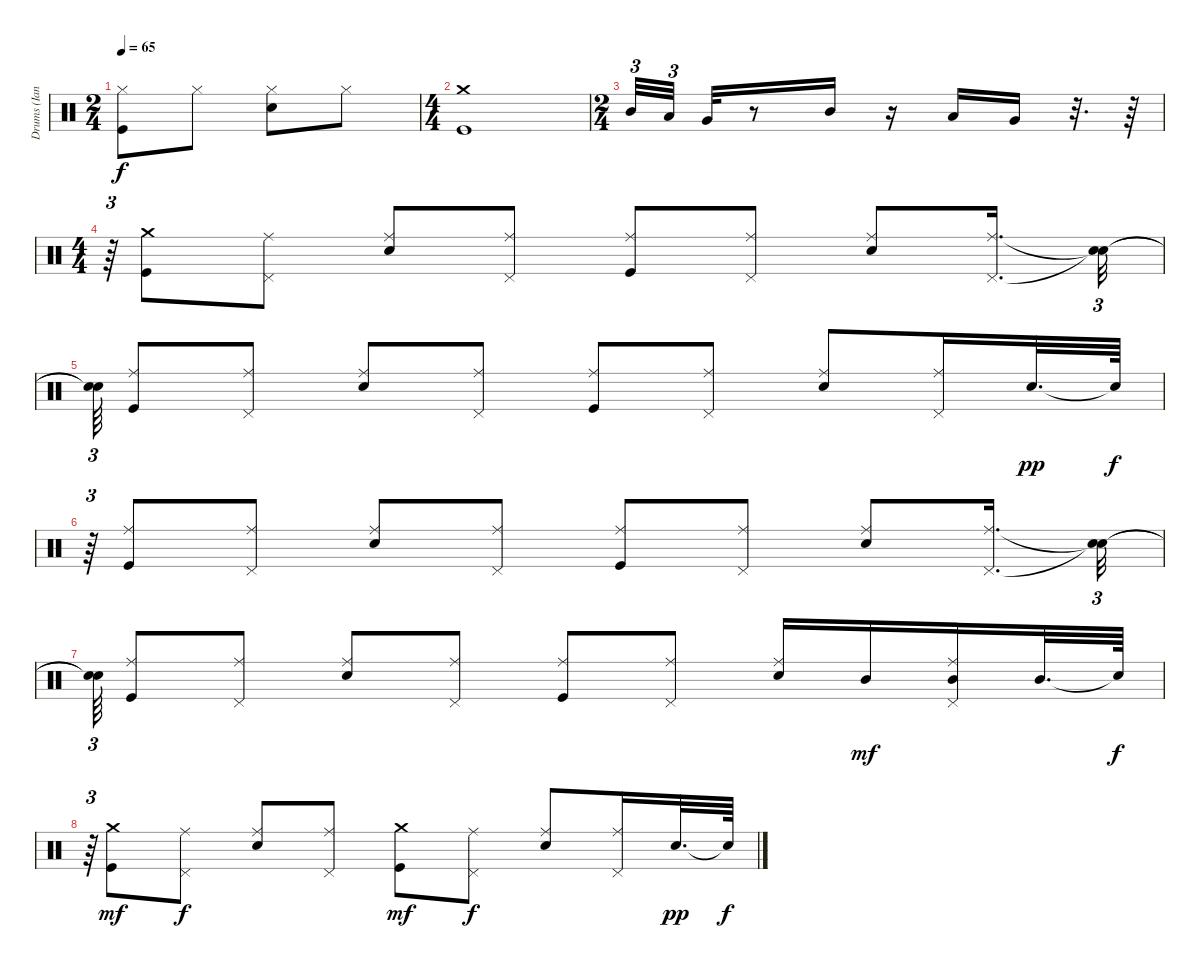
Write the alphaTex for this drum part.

\track ("Drums (Ian Paice)" "Drums (Ian") {instrument percussion}
\staff {score}
\articulation defaults
\ts (2 4)
\tempo 65
\clef neutral
\ks c
("Hi-Hat (closed)" "Kick (hit)").8{dy f} "Hi-Hat (closed)".8 ("Hi-Hat (closed)" "Electric Snare (hit)").8 "Hi-Hat (closed)".8 |
\ts (4 4)
("Crash medium (hit)" "Kick (hit)").1 |
\ts (2 4)
"Mid Tom (hit)".32{tu (3 2)} "Low Tom (hit)".32{tu (3 2)} "Very Low Tom (hit)".32 r.8 "Mid Tom (hit)".16 r.16 "Low Tom (hit)".16 "Very Low Tom (hit)".16 r.32{d} r.64 |
\ts (4 4)
r.64{tu (3 2)} ("Crash medium (hit)" "Kick (hit)").8 ("Ride (middle)" "Pedal Hi-Hat (hit)").8 ("Ride (middle)" "Electric Snare (hit)").8 ("Ride (middle)" "Pedal Hi-Hat (hit)").8 ("Ride (middle)" "Kick (hit)").8 ("Ride (middle)" "Pedal Hi-Hat (hit)").8 ("Ride (middle)" "Electric Snare (hit)").8 ("Ride (middle)" "Pedal Hi-Hat (hit)").16{d} ("Snare (hit)"{t} "Snare (hit)"{t}).32{tu (3 2)} |
("Snare (hit)"{t} "Snare (hit)"{t}).64{tu (3 2)} ("Ride (middle)" "Kick (hit)").8 ("Ride (middle)" "Pedal Hi-Hat (hit)").8 ("Ride (middle)" "Electric Snare (hit)").8 ("Ride (middle)" "Pedal Hi-Hat (hit)").8 ("Ride (middle)" "Kick (hit)").8 ("Ride (middle)" "Pedal Hi-Hat (hit)").8 ("Ride (middle)" "Electric Snare (hit)").8 ("Ride (middle)" "Pedal Hi-Hat (hit)").16 "Electric Snare (hit)".32{d dy pp} "Snare (hit)"{t}.64{dy f} |
r.64{tu (3 2)} ("Ride (middle)" "Kick (hit)").8 ("Ride (middle)" "Pedal Hi-Hat (hit)").8 ("Ride (middle)" "Electric Snare (hit)").8 ("Ride (middle)" "Pedal Hi-Hat (hit)").8 ("Ride (middle)" "Kick (hit)").8 ("Ride (middle)" "Pedal Hi-Hat (hit)").8 ("Ride (middle)" "Electric Snare (hit)").8 ("Ride (middle)" "Pedal Hi-Hat (hit)").16{d} ("Snare (hit)"{t} "Snare (hit)"{t}).32{tu (3 2)} |
("Snare (hit)"{t} "Snare (hit)"{t}).64{tu (3 2)} ("Ride (middle)" "Kick (hit)").8 ("Ride (middle)" "Pedal Hi-Hat (hit)").8 ("Ride (middle)" "Electric Snare (hit)").8 ("Ride (middle)" "Pedal Hi-Hat (hit)").8 ("Ride (middle)" "Kick (hit)").8 ("Ride (middle)" "Pedal Hi-Hat (hit)").8 ("Ride (middle)" "Electric Snare (hit)").16 "Mid Tom (hit)".16{dy mf} ("Ride (middle)" "Mid Tom (hit)" "Pedal Hi-Hat (hit)").16 "Mid Tom (hit)".32{d} "Snare (hit)"{t}.64{dy f} |
r.64{tu (3 2)} ("Crash medium (hit)" "Kick (hit)").8{dy mf} ("Ride (middle)" "Pedal Hi-Hat (hit)").8{dy f} ("Ride (middle)" "Electric Snare (hit)").8 ("Ride (middle)" "Pedal Hi-Hat (hit)").8 ("Crash medium (hit)" "Kick (hit)").8{dy mf} ("Ride (middle)" "Pedal Hi-Hat (hit)").8{dy f} ("Ride (middle)" "Electric Snare (hit)").8 ("Ride (middle)" "Pedal Hi-Hat (hit)").16 "Electric Snare (hit)".32{d dy pp} "Snare (hit)"{t}.64{dy f}
